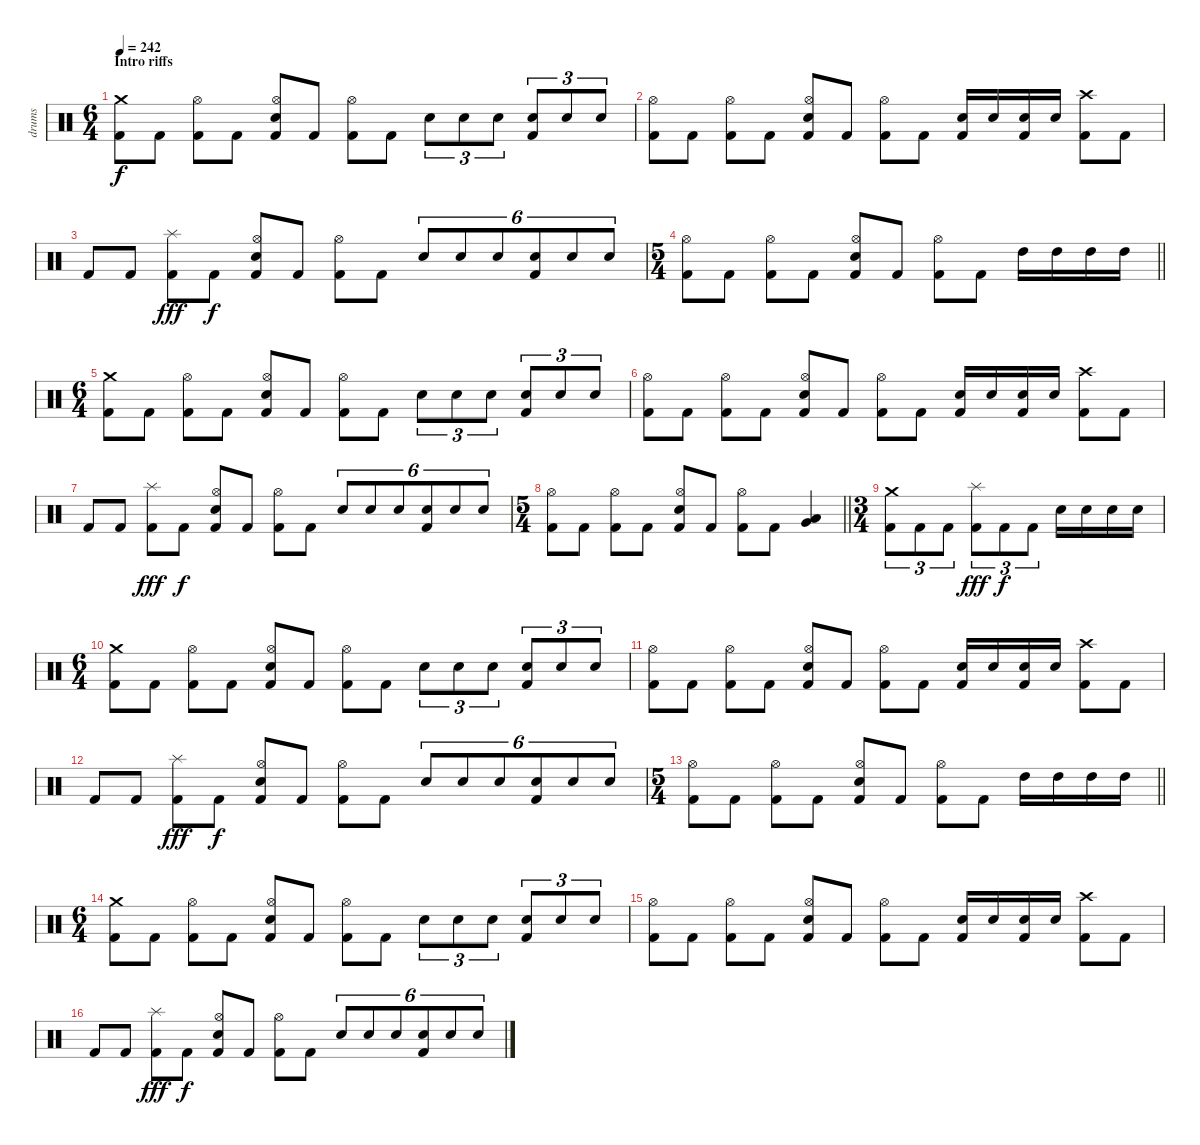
\track ("drums" "drums") {instrument percussion}
\staff {score}
\articulation defaults
\ts (6 4)
\section ("" "Intro riffs")
\tempo 242
\clef neutral
\ks c
("Crash medium (hit)" "Kick (hit) 2").8{dy f} "Kick (hit) 2".8 ("Hi-Hat (open)" "Kick (hit) 2").8 "Kick (hit) 2".8 ("Hi-Hat (open)" "Electric Snare (hit)" "Kick (hit) 2").8 "Kick (hit) 2".8 ("Hi-Hat (open)" "Kick (hit) 2").8 "Kick (hit) 2".8 "Electric Snare (hit)".8{tu (3 2)} "Electric Snare (hit)".8{tu (3 2)} "Electric Snare (hit)".8{tu (3 2)} ("Electric Snare (hit)" "Kick (hit) 2").8{tu (3 2)} "Electric Snare (hit)".8{tu (3 2)} "Electric Snare (hit)".8{tu (3 2)} |
("Hi-Hat (open)" "Kick (hit) 2").8 "Kick (hit) 2".8 ("Hi-Hat (open)" "Kick (hit) 2").8 "Kick (hit) 2".8 ("Hi-Hat (open)" "Electric Snare (hit)" "Kick (hit) 2").8 "Kick (hit) 2".8 ("Hi-Hat (open)" "Kick (hit) 2").8 "Kick (hit) 2".8 ("Electric Snare (hit)" "Kick (hit) 2").16 "Electric Snare (hit)".16 ("Electric Snare (hit)" "Kick (hit) 2").16 "Electric Snare (hit)".16 ("Crash high (hit)" "Kick (hit) 2").8 "Kick (hit) 2".8 |
"Kick (hit) 2".8 "Kick (hit) 2".8 ("Splash (hit)" "Kick (hit) 2").8{dy fff} "Kick (hit) 2".8{dy f} ("Hi-Hat (open)" "Electric Snare (hit)" "Kick (hit) 2").8 "Kick (hit) 2".8 ("Hi-Hat (open)" "Kick (hit) 2").8 "Kick (hit) 2".8 "Electric Snare (hit)".8{tu (6 4)} "Electric Snare (hit)".8{tu (6 4)} "Electric Snare (hit)".8{tu (6 4)} ("Electric Snare (hit)" "Kick (hit) 2").8{tu (6 4)} "Electric Snare (hit)".8{tu (6 4)} "Electric Snare (hit)".8{tu (6 4)} |
\ts (5 4)
\barLineRight lightlight
("Hi-Hat (open)" "Kick (hit) 2").8 "Kick (hit) 2".8 ("Hi-Hat (open)" "Kick (hit) 2").8 "Kick (hit) 2".8 ("Hi-Hat (open)" "Electric Snare (hit)" "Kick (hit) 2").8 "Kick (hit) 2".8 ("Hi-Hat (open)" "Kick (hit) 2").8 "Kick (hit) 2".8 "High Tom (hit)".16 "High Tom (hit)".16 "High Tom (hit)".16 "High Tom (hit)".16 |
\ts (6 4)
("Crash medium (hit)" "Kick (hit) 2").8 "Kick (hit) 2".8 ("Hi-Hat (open)" "Kick (hit) 2").8 "Kick (hit) 2".8 ("Hi-Hat (open)" "Electric Snare (hit)" "Kick (hit) 2").8 "Kick (hit) 2".8 ("Hi-Hat (open)" "Kick (hit) 2").8 "Kick (hit) 2".8 "Electric Snare (hit)".8{tu (3 2)} "Electric Snare (hit)".8{tu (3 2)} "Electric Snare (hit)".8{tu (3 2)} ("Electric Snare (hit)" "Kick (hit) 2").8{tu (3 2)} "Electric Snare (hit)".8{tu (3 2)} "Electric Snare (hit)".8{tu (3 2)} |
("Hi-Hat (open)" "Kick (hit) 2").8 "Kick (hit) 2".8 ("Hi-Hat (open)" "Kick (hit) 2").8 "Kick (hit) 2".8 ("Hi-Hat (open)" "Electric Snare (hit)" "Kick (hit) 2").8 "Kick (hit) 2".8 ("Hi-Hat (open)" "Kick (hit) 2").8 "Kick (hit) 2".8 ("Electric Snare (hit)" "Kick (hit) 2").16 "Electric Snare (hit)".16 ("Electric Snare (hit)" "Kick (hit) 2").16 "Electric Snare (hit)".16 ("Crash high (hit)" "Kick (hit) 2").8 "Kick (hit) 2".8 |
"Kick (hit) 2".8 "Kick (hit) 2".8 ("Splash (hit)" "Kick (hit) 2").8{dy fff} "Kick (hit) 2".8{dy f} ("Hi-Hat (open)" "Electric Snare (hit)" "Kick (hit) 2").8 "Kick (hit) 2".8 ("Hi-Hat (open)" "Kick (hit) 2").8 "Kick (hit) 2".8 "Electric Snare (hit)".8{tu (6 4)} "Electric Snare (hit)".8{tu (6 4)} "Electric Snare (hit)".8{tu (6 4)} ("Electric Snare (hit)" "Kick (hit) 2").8{tu (6 4)} "Electric Snare (hit)".8{tu (6 4)} "Electric Snare (hit)".8{tu (6 4)} |
\ts (5 4)
\barLineRight lightlight
("Hi-Hat (open)" "Kick (hit) 2").8 "Kick (hit) 2".8 ("Hi-Hat (open)" "Kick (hit) 2").8 "Kick (hit) 2".8 ("Hi-Hat (open)" "Electric Snare (hit)" "Kick (hit) 2").8 "Kick (hit) 2".8 ("Hi-Hat (open)" "Kick (hit) 2").8 "Kick (hit) 2".8 ("Low Tom (hit)" "Very Low Tom (hit)").4 |
\ts (3 4)
("Crash medium (hit)" "Kick (hit) 2").8{tu (3 2)} "Kick (hit) 2".8{tu (3 2)} "Kick (hit) 2".8{tu (3 2)} ("Splash (hit)" "Kick (hit) 2").8{tu (3 2) dy fff} "Kick (hit) 2".8{tu (3 2) dy f} "Kick (hit) 2".8{tu (3 2)} "Electric Snare (hit)".16 "Electric Snare (hit)".16 "Electric Snare (hit)".16 "Electric Snare (hit)".16 |
\ts (6 4)
("Crash medium (hit)" "Kick (hit) 2").8 "Kick (hit) 2".8 ("Hi-Hat (open)" "Kick (hit) 2").8 "Kick (hit) 2".8 ("Hi-Hat (open)" "Electric Snare (hit)" "Kick (hit) 2").8 "Kick (hit) 2".8 ("Hi-Hat (open)" "Kick (hit) 2").8 "Kick (hit) 2".8 "Electric Snare (hit)".8{tu (3 2)} "Electric Snare (hit)".8{tu (3 2)} "Electric Snare (hit)".8{tu (3 2)} ("Electric Snare (hit)" "Kick (hit) 2").8{tu (3 2)} "Electric Snare (hit)".8{tu (3 2)} "Electric Snare (hit)".8{tu (3 2)} |
("Hi-Hat (open)" "Kick (hit) 2").8 "Kick (hit) 2".8 ("Hi-Hat (open)" "Kick (hit) 2").8 "Kick (hit) 2".8 ("Hi-Hat (open)" "Electric Snare (hit)" "Kick (hit) 2").8 "Kick (hit) 2".8 ("Hi-Hat (open)" "Kick (hit) 2").8 "Kick (hit) 2".8 ("Electric Snare (hit)" "Kick (hit) 2").16 "Electric Snare (hit)".16 ("Electric Snare (hit)" "Kick (hit) 2").16 "Electric Snare (hit)".16 ("Crash high (hit)" "Kick (hit) 2").8 "Kick (hit) 2".8 |
"Kick (hit) 2".8 "Kick (hit) 2".8 ("Splash (hit)" "Kick (hit) 2").8{dy fff} "Kick (hit) 2".8{dy f} ("Hi-Hat (open)" "Electric Snare (hit)" "Kick (hit) 2").8 "Kick (hit) 2".8 ("Hi-Hat (open)" "Kick (hit) 2").8 "Kick (hit) 2".8 "Electric Snare (hit)".8{tu (6 4)} "Electric Snare (hit)".8{tu (6 4)} "Electric Snare (hit)".8{tu (6 4)} ("Electric Snare (hit)" "Kick (hit) 2").8{tu (6 4)} "Electric Snare (hit)".8{tu (6 4)} "Electric Snare (hit)".8{tu (6 4)} |
\ts (5 4)
\barLineRight lightlight
("Hi-Hat (open)" "Kick (hit) 2").8 "Kick (hit) 2".8 ("Hi-Hat (open)" "Kick (hit) 2").8 "Kick (hit) 2".8 ("Hi-Hat (open)" "Electric Snare (hit)" "Kick (hit) 2").8 "Kick (hit) 2".8 ("Hi-Hat (open)" "Kick (hit) 2").8 "Kick (hit) 2".8 "High Tom (hit)".16 "High Tom (hit)".16 "High Tom (hit)".16 "High Tom (hit)".16 |
\ts (6 4)
("Crash medium (hit)" "Kick (hit) 2").8 "Kick (hit) 2".8 ("Hi-Hat (open)" "Kick (hit) 2").8 "Kick (hit) 2".8 ("Hi-Hat (open)" "Electric Snare (hit)" "Kick (hit) 2").8 "Kick (hit) 2".8 ("Hi-Hat (open)" "Kick (hit) 2").8 "Kick (hit) 2".8 "Electric Snare (hit)".8{tu (3 2)} "Electric Snare (hit)".8{tu (3 2)} "Electric Snare (hit)".8{tu (3 2)} ("Electric Snare (hit)" "Kick (hit) 2").8{tu (3 2)} "Electric Snare (hit)".8{tu (3 2)} "Electric Snare (hit)".8{tu (3 2)} |
("Hi-Hat (open)" "Kick (hit) 2").8 "Kick (hit) 2".8 ("Hi-Hat (open)" "Kick (hit) 2").8 "Kick (hit) 2".8 ("Hi-Hat (open)" "Electric Snare (hit)" "Kick (hit) 2").8 "Kick (hit) 2".8 ("Hi-Hat (open)" "Kick (hit) 2").8 "Kick (hit) 2".8 ("Electric Snare (hit)" "Kick (hit) 2").16 "Electric Snare (hit)".16 ("Electric Snare (hit)" "Kick (hit) 2").16 "Electric Snare (hit)".16 ("Crash high (hit)" "Kick (hit) 2").8 "Kick (hit) 2".8 |
"Kick (hit) 2".8 "Kick (hit) 2".8 ("Splash (hit)" "Kick (hit) 2").8{dy fff} "Kick (hit) 2".8{dy f} ("Hi-Hat (open)" "Electric Snare (hit)" "Kick (hit) 2").8 "Kick (hit) 2".8 ("Hi-Hat (open)" "Kick (hit) 2").8 "Kick (hit) 2".8 "Electric Snare (hit)".8{tu (6 4)} "Electric Snare (hit)".8{tu (6 4)} "Electric Snare (hit)".8{tu (6 4)} ("Electric Snare (hit)" "Kick (hit) 2").8{tu (6 4)} "Electric Snare (hit)".8{tu (6 4)} "Electric Snare (hit)".8{tu (6 4)}
